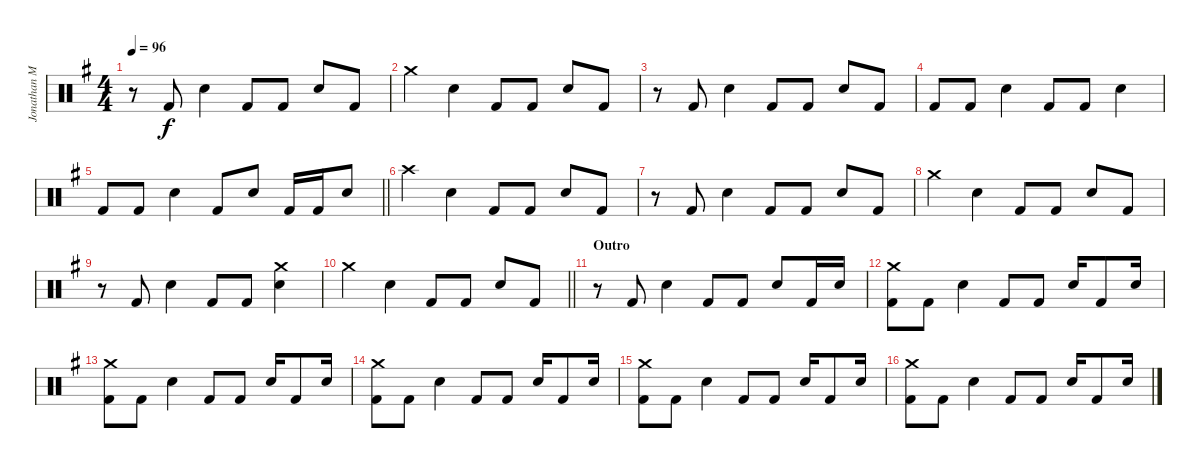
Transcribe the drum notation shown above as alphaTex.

\track ("Jonathan Mover (Drums)" "Jonathan M") {instrument percussion}
\staff {score}
\articulation defaults
\ts (4 4)
\tempo 96
\clef neutral
\ks g
r.8{dy f} "Kick (hit) 2".8 "Electric Snare (hit)".4 "Kick (hit) 2".8 "Kick (hit) 2".8 "Electric Snare (hit)".8 "Kick (hit) 2".8 |
"Crash medium (hit)".4 "Electric Snare (hit)".4 "Kick (hit) 2".8 "Kick (hit) 2".8 "Electric Snare (hit)".8 "Kick (hit) 2".8 |
r.8 "Kick (hit) 2".8 "Electric Snare (hit)".4 "Kick (hit) 2".8 "Kick (hit) 2".8 "Electric Snare (hit)".8 "Kick (hit) 2".8 |
"Kick (hit) 2".8 "Kick (hit) 2".8 "Electric Snare (hit)".4 "Kick (hit) 2".8 "Kick (hit) 2".8 "Electric Snare (hit)".4 |
\barLineRight lightlight "Kick (hit) 2".8 "Kick (hit) 2".8 "Electric Snare (hit)".4 "Kick (hit) 2".8 "Electric Snare (hit)".8 "Kick (hit) 2".16 "Kick (hit) 2".16 "Electric Snare (hit)".8
|
"Crash high (hit)".4 "Electric Snare (hit)".4 "Kick (hit) 2".8 "Kick (hit) 2".8 "Electric Snare (hit)".8 "Kick (hit) 2".8 |
r.8 "Kick (hit) 2".8 "Electric Snare (hit)".4 "Kick (hit) 2".8 "Kick (hit) 2".8 "Electric Snare (hit)".8 "Kick (hit) 2".8 |
"Crash medium (hit)".4 "Electric Snare (hit)".4 "Kick (hit) 2".8 "Kick (hit) 2".8 "Electric Snare (hit)".8 "Kick (hit) 2".8 |
r.8 "Kick (hit) 2".8 "Electric Snare (hit)".4 "Kick (hit) 2".8 "Kick (hit) 2".8 ("Crash medium (hit)" "Electric Snare (hit)").4 |
\barLineRight lightlight "Crash medium (hit)".4 "Electric Snare (hit)".4 "Kick (hit) 2".8 "Kick (hit) 2".8 "Electric Snare (hit)".8 "Kick (hit) 2".8
|
\section ("" "Outro")
r.8 "Kick (hit) 2".8 "Electric Snare (hit)".4 "Kick (hit) 2".8 "Kick (hit) 2".8 "Electric Snare (hit)".8 "Kick (hit) 2".16 "Electric Snare (hit)".16 |
("Crash medium (hit)" "Kick (hit) 2").8 "Kick (hit) 2".8 "Electric Snare (hit)".4 "Kick (hit) 2".8 "Kick (hit) 2".8 "Electric Snare (hit)".16 "Kick (hit) 2".8 "Electric Snare (hit)".16 |
("Crash medium (hit)" "Kick (hit) 2").8 "Kick (hit) 2".8 "Electric Snare (hit)".4 "Kick (hit) 2".8 "Kick (hit) 2".8 "Electric Snare (hit)".16 "Kick (hit) 2".8 "Electric Snare (hit)".16 |
("Crash medium (hit)" "Kick (hit) 2").8 "Kick (hit) 2".8 "Electric Snare (hit)".4 "Kick (hit) 2".8 "Kick (hit) 2".8 "Electric Snare (hit)".16 "Kick (hit) 2".8 "Electric Snare (hit)".16 |
("Crash medium (hit)" "Kick (hit) 2").8 "Kick (hit) 2".8 "Electric Snare (hit)".4 "Kick (hit) 2".8 "Kick (hit) 2".8 "Electric Snare (hit)".16 "Kick (hit) 2".8 "Electric Snare (hit)".16 |
("Crash medium (hit)" "Kick (hit) 2").8 "Kick (hit) 2".8 "Electric Snare (hit)".4 "Kick (hit) 2".8 "Kick (hit) 2".8 "Electric Snare (hit)".16 "Kick (hit) 2".8 "Electric Snare (hit)".16
